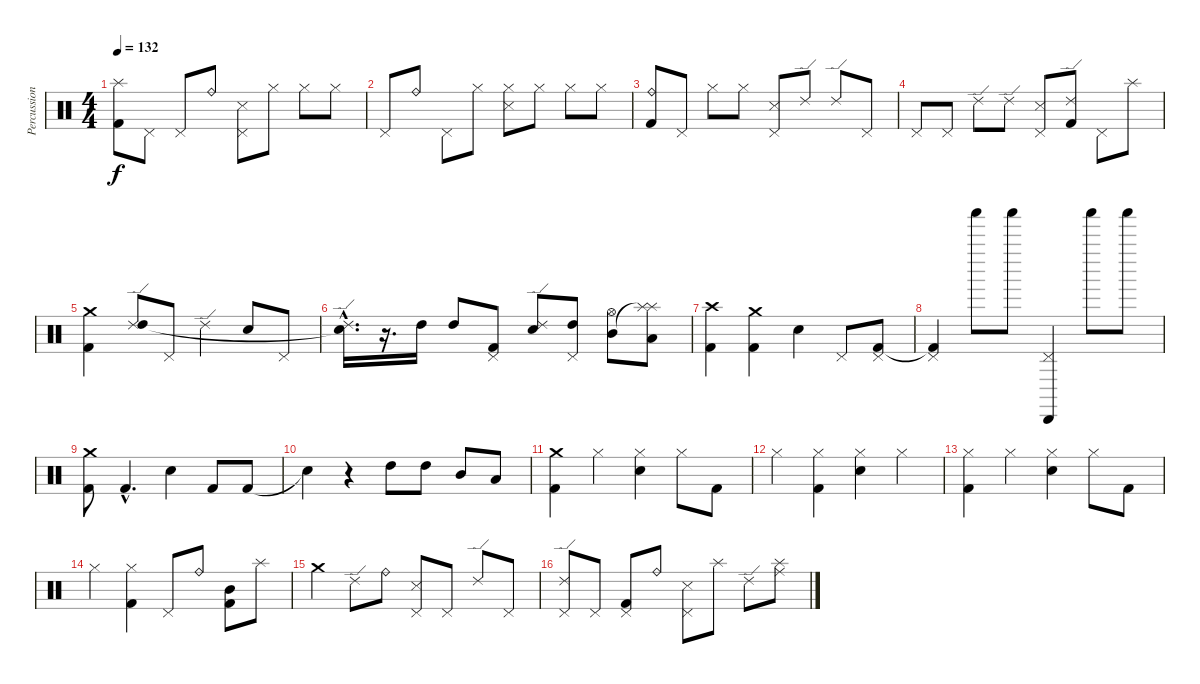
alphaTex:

\track ("Percussion" "Percussion") {instrument percussion}
\staff {score}
\articulation defaults
\ts (4 4)
\tempo 132
\clef neutral
\ks c
("Splash (hit)" "Kick (hit) 2").8{dy f} "Pedal Hi-Hat (hit)".8 "Pedal Hi-Hat (hit)".8 "Ride (bell)".8 ("Pedal Hi-Hat (hit)" "Snare (side stick) 3").8 "Hi-Hat (closed)".8 "Hi-Hat (closed)".8 "Hi-Hat (closed)".8 |
"Pedal Hi-Hat (hit)".8 "Ride (bell)".8 "Pedal Hi-Hat (hit)".8 "Hi-Hat (closed)".8 ("Hi-Hat (closed)" "Snare (side stick) 3").8 "Hi-Hat (closed)".8 "Hi-Hat (closed)".8 "Hi-Hat (closed)".8 |
("Ride (bell)" "Kick (hit) 2").8 "Pedal Hi-Hat (hit)".8 "Hi-Hat (closed)".8 "Hi-Hat (closed)".8 ("Pedal Hi-Hat (hit)" "Snare (side stick) 3").8 "Ride (edge) 2".8 "Ride (edge) 2".8 "Pedal Hi-Hat (hit)".8 |
"Pedal Hi-Hat (hit)".8 "Pedal Hi-Hat (hit)".8 "Ride (edge) 2".8 "Ride (edge) 2".8 ("Pedal Hi-Hat (hit)" "Snare (side stick) 3").8 ("Ride (edge) 2" "Kick (hit) 2").8 "Pedal Hi-Hat (hit)".8 "Splash (hit)".8 |
("Crash medium (hit)" "Kick (hit) 2").4 ("Ride (edge) 2" "High Tom (hit)").8 "Pedal Hi-Hat (hit)".8 "Ride (edge) 2".4 "Snare (hit) 2".8 "Pedal Hi-Hat (hit)".8 |
("Ride (edge) 2"{hac} "Snare (hit)"{hac t}).16{d} r.16{d} "High Tom (hit)".16 "High Tom (hit)".8 ("Pedal Hi-Hat (hit)" "Kick (hit) 2").8 ("Ride (edge) 2" "Snare (hit) 2").8 ("Pedal Hi-Hat (hit)" "High Tom (hit)").8 ("Hi-Hat (open)" "Mid Tom (hit)").8 ("Splash (hit)" "Splash (hit)"{t} "Low Tom (hit)").8 |
("Crash high (hit)" "Kick (hit) 2").4 ("Crash medium (hit)" "Kick (hit) 2").4 "Snare (hit) 2".4 "Pedal Hi-Hat (hit)".8 ("Pedal Hi-Hat (hit)" "Kick (hit) 2").8 |
("Pedal Hi-Hat (hit)" "Kick (hit) 2"{t}).4 "Shaker (hit)".8 "Shaker (hit)".8 ("Pedal Hi-Hat (hit)" "Cabasa (hit)").4 "Shaker (hit)".8 "Shaker (hit)".8 |
("Crash medium (hit)" "Kick (hit) 2").8 "Kick (hit) 2"{hac}.4{d} "Snare (hit) 2".4 "Kick (hit) 2".8 "Kick (hit) 2".8 |
"Snare (hit)"{t}.4 r.4 "High Tom (hit)".8 "High Tom (hit)".8 "Mid Tom (hit)".8 "Low Tom (hit)".8 |
("Crash medium (hit)" "Kick (hit) 2").4 "Hi-Hat (closed)".4 ("Hi-Hat (closed)" "Snare (hit) 2").4 "Hi-Hat (closed)".8 "Kick (hit) 2".8 |
"Hi-Hat (closed)".4 ("Hi-Hat (closed)" "Kick (hit) 2").4 ("Hi-Hat (closed)" "Snare (hit) 2").4 "Hi-Hat (closed)".4 |
("Hi-Hat (closed)" "Kick (hit) 2").4 "Hi-Hat (closed)".4 ("Hi-Hat (closed)" "Snare (hit) 2").4 "Hi-Hat (closed)".8 "Kick (hit) 2".8 |
"Hi-Hat (closed)".4 ("Hi-Hat (closed)" "Kick (hit) 2").4 "Pedal Hi-Hat (hit)".8 "Ride (bell)".8 ("Mid Tom (hit)" "Kick (hit) 2").8 "Splash (hit)".8 |
"Crash medium (hit)".4 "Ride (edge) 2".8 "Ride (bell)".8 ("Pedal Hi-Hat (hit)" "Snare (side stick) 3").8 "Pedal Hi-Hat (hit)".8 "Ride (edge) 2".8 "Pedal Hi-Hat (hit)".8 |
("Ride (edge) 2" "Pedal Hi-Hat (hit)").8 "Pedal Hi-Hat (hit)".8 ("Pedal Hi-Hat (hit)" "Kick (hit) 2").8 "Ride (bell)".8 ("Pedal Hi-Hat (hit)" "Snare (side stick) 3").8 "Splash (hit)".8 "Ride (edge) 2".8 ("Ride (middle)" "Splash (hit)").8
